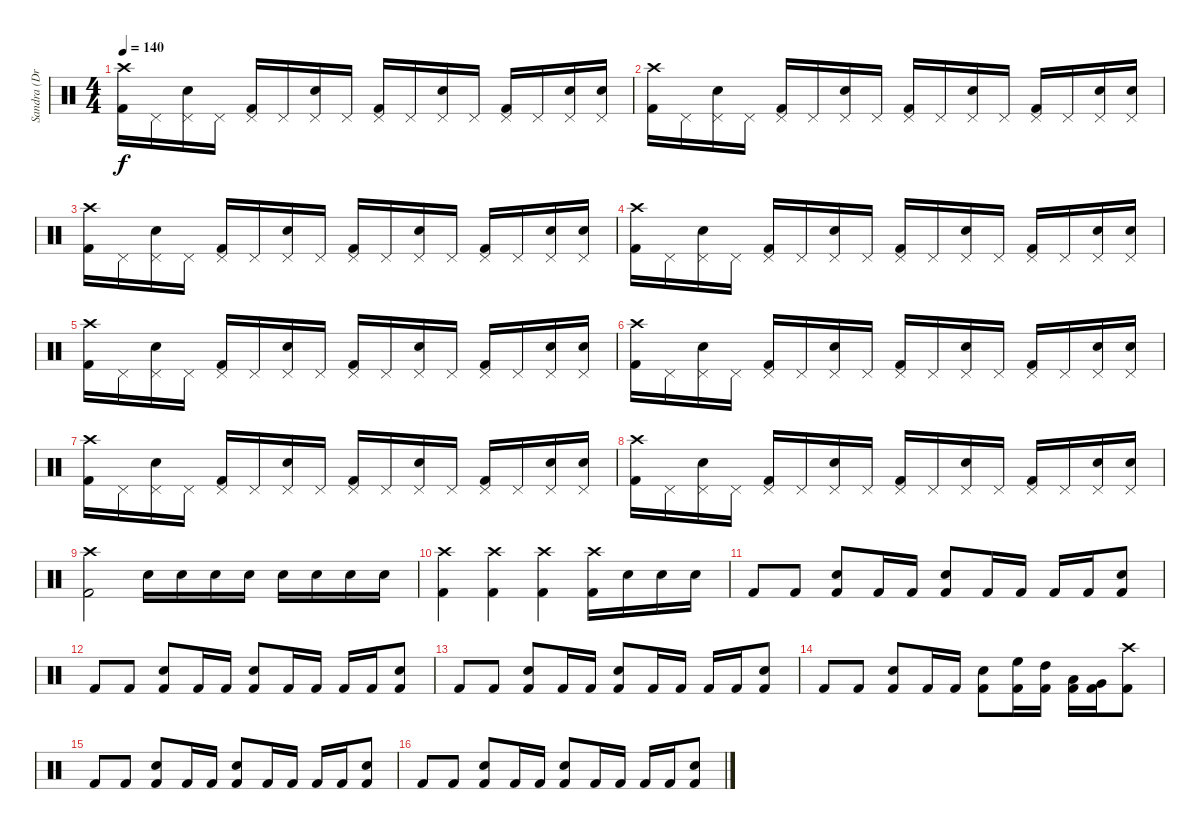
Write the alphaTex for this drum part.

\track ("Sandra (Drums)" "Sandra (Dr") {instrument percussion}
\staff {score}
\articulation defaults
\ts (4 4)
\tempo 140
\clef neutral
\ks c
("Crash high (hit)" "Kick (hit) 2").16{dy f} "Pedal Hi-Hat (hit)".16 ("Pedal Hi-Hat (hit)" "Snare (hit) 2").16 "Pedal Hi-Hat (hit)".16 ("Pedal Hi-Hat (hit)" "Kick (hit) 2").16 "Pedal Hi-Hat (hit)".16 ("Pedal Hi-Hat (hit)" "Snare (hit) 2").16 "Pedal Hi-Hat (hit)".16 ("Pedal Hi-Hat (hit)" "Kick (hit) 2").16 "Pedal Hi-Hat (hit)".16 ("Pedal Hi-Hat (hit)" "Snare (hit) 2").16 "Pedal Hi-Hat (hit)".16 ("Pedal Hi-Hat (hit)" "Kick (hit) 2").16 "Pedal Hi-Hat (hit)".16 ("Pedal Hi-Hat (hit)" "Snare (hit) 2").16 ("Pedal Hi-Hat (hit)" "Snare (hit) 2").16 |
("Crash high (hit)" "Kick (hit) 2").16 "Pedal Hi-Hat (hit)".16 ("Pedal Hi-Hat (hit)" "Snare (hit) 2").16 "Pedal Hi-Hat (hit)".16 ("Pedal Hi-Hat (hit)" "Kick (hit) 2").16 "Pedal Hi-Hat (hit)".16 ("Pedal Hi-Hat (hit)" "Snare (hit) 2").16 "Pedal Hi-Hat (hit)".16 ("Pedal Hi-Hat (hit)" "Kick (hit) 2").16 "Pedal Hi-Hat (hit)".16 ("Pedal Hi-Hat (hit)" "Snare (hit) 2").16 "Pedal Hi-Hat (hit)".16 ("Pedal Hi-Hat (hit)" "Kick (hit) 2").16 "Pedal Hi-Hat (hit)".16 ("Pedal Hi-Hat (hit)" "Snare (hit) 2").16 ("Pedal Hi-Hat (hit)" "Snare (hit) 2").16 |
("Crash high (hit)" "Kick (hit) 2").16 "Pedal Hi-Hat (hit)".16 ("Pedal Hi-Hat (hit)" "Snare (hit) 2").16 "Pedal Hi-Hat (hit)".16 ("Pedal Hi-Hat (hit)" "Kick (hit) 2").16 "Pedal Hi-Hat (hit)".16 ("Pedal Hi-Hat (hit)" "Snare (hit) 2").16 "Pedal Hi-Hat (hit)".16 ("Pedal Hi-Hat (hit)" "Kick (hit) 2").16 "Pedal Hi-Hat (hit)".16 ("Pedal Hi-Hat (hit)" "Snare (hit) 2").16 "Pedal Hi-Hat (hit)".16 ("Pedal Hi-Hat (hit)" "Kick (hit) 2").16 "Pedal Hi-Hat (hit)".16 ("Pedal Hi-Hat (hit)" "Snare (hit) 2").16 ("Pedal Hi-Hat (hit)" "Snare (hit) 2").16 |
("Crash high (hit)" "Kick (hit) 2").16 "Pedal Hi-Hat (hit)".16 ("Pedal Hi-Hat (hit)" "Snare (hit) 2").16 "Pedal Hi-Hat (hit)".16 ("Pedal Hi-Hat (hit)" "Kick (hit) 2").16 "Pedal Hi-Hat (hit)".16 ("Pedal Hi-Hat (hit)" "Snare (hit) 2").16 "Pedal Hi-Hat (hit)".16 ("Pedal Hi-Hat (hit)" "Kick (hit) 2").16 "Pedal Hi-Hat (hit)".16 ("Pedal Hi-Hat (hit)" "Snare (hit) 2").16 "Pedal Hi-Hat (hit)".16 ("Pedal Hi-Hat (hit)" "Kick (hit) 2").16 "Pedal Hi-Hat (hit)".16 ("Pedal Hi-Hat (hit)" "Snare (hit) 2").16 ("Pedal Hi-Hat (hit)" "Snare (hit) 2").16 |
("Crash high (hit)" "Kick (hit) 2").16 "Pedal Hi-Hat (hit)".16 ("Pedal Hi-Hat (hit)" "Snare (hit) 2").16 "Pedal Hi-Hat (hit)".16 ("Pedal Hi-Hat (hit)" "Kick (hit) 2").16 "Pedal Hi-Hat (hit)".16 ("Pedal Hi-Hat (hit)" "Snare (hit) 2").16 "Pedal Hi-Hat (hit)".16 ("Pedal Hi-Hat (hit)" "Kick (hit) 2").16 "Pedal Hi-Hat (hit)".16 ("Pedal Hi-Hat (hit)" "Snare (hit) 2").16 "Pedal Hi-Hat (hit)".16 ("Pedal Hi-Hat (hit)" "Kick (hit) 2").16 "Pedal Hi-Hat (hit)".16 ("Pedal Hi-Hat (hit)" "Snare (hit) 2").16 ("Pedal Hi-Hat (hit)" "Snare (hit) 2").16 |
("Crash high (hit)" "Kick (hit) 2").16 "Pedal Hi-Hat (hit)".16 ("Pedal Hi-Hat (hit)" "Snare (hit) 2").16 "Pedal Hi-Hat (hit)".16 ("Pedal Hi-Hat (hit)" "Kick (hit) 2").16 "Pedal Hi-Hat (hit)".16 ("Pedal Hi-Hat (hit)" "Snare (hit) 2").16 "Pedal Hi-Hat (hit)".16 ("Pedal Hi-Hat (hit)" "Kick (hit) 2").16 "Pedal Hi-Hat (hit)".16 ("Pedal Hi-Hat (hit)" "Snare (hit) 2").16 "Pedal Hi-Hat (hit)".16 ("Pedal Hi-Hat (hit)" "Kick (hit) 2").16 "Pedal Hi-Hat (hit)".16 ("Pedal Hi-Hat (hit)" "Snare (hit) 2").16 ("Pedal Hi-Hat (hit)" "Snare (hit) 2").16 |
("Crash high (hit)" "Kick (hit) 2").16 "Pedal Hi-Hat (hit)".16 ("Pedal Hi-Hat (hit)" "Snare (hit) 2").16 "Pedal Hi-Hat (hit)".16 ("Pedal Hi-Hat (hit)" "Kick (hit) 2").16 "Pedal Hi-Hat (hit)".16 ("Pedal Hi-Hat (hit)" "Snare (hit) 2").16 "Pedal Hi-Hat (hit)".16 ("Pedal Hi-Hat (hit)" "Kick (hit) 2").16 "Pedal Hi-Hat (hit)".16 ("Pedal Hi-Hat (hit)" "Snare (hit) 2").16 "Pedal Hi-Hat (hit)".16 ("Pedal Hi-Hat (hit)" "Kick (hit) 2").16 "Pedal Hi-Hat (hit)".16 ("Pedal Hi-Hat (hit)" "Snare (hit) 2").16 ("Pedal Hi-Hat (hit)" "Snare (hit) 2").16 |
("Crash high (hit)" "Kick (hit) 2").16 "Pedal Hi-Hat (hit)".16 ("Pedal Hi-Hat (hit)" "Snare (hit) 2").16 "Pedal Hi-Hat (hit)".16 ("Pedal Hi-Hat (hit)" "Kick (hit) 2").16 "Pedal Hi-Hat (hit)".16 ("Pedal Hi-Hat (hit)" "Snare (hit) 2").16 "Pedal Hi-Hat (hit)".16 ("Pedal Hi-Hat (hit)" "Kick (hit) 2").16 "Pedal Hi-Hat (hit)".16 ("Pedal Hi-Hat (hit)" "Snare (hit) 2").16 "Pedal Hi-Hat (hit)".16 ("Pedal Hi-Hat (hit)" "Kick (hit) 2").16 "Pedal Hi-Hat (hit)".16 ("Pedal Hi-Hat (hit)" "Snare (hit) 2").16 ("Pedal Hi-Hat (hit)" "Snare (hit) 2").16 |
("Crash high (hit)" "Kick (hit) 2").2 "Snare (hit) 2".16 "Snare (hit) 2".16 "Snare (hit) 2".16 "Snare (hit) 2".16 "Snare (hit) 2".16 "Snare (hit) 2".16 "Snare (hit) 2".16 "Snare (hit) 2".16 |
("Crash high (hit)" "Kick (hit) 2").4 ("Crash high (hit)" "Kick (hit) 2").4 ("Crash high (hit)" "Kick (hit) 2").4 ("Crash high (hit)" "Kick (hit) 2").16 "Snare (hit) 2".16 "Snare (hit) 2".16 "Snare (hit) 2".16 |
"Kick (hit) 2".8 "Kick (hit) 2".8 ("Snare (hit) 2" "Kick (hit) 2").8 "Kick (hit) 2".16 "Kick (hit) 2".16 ("Snare (hit) 2" "Kick (hit) 2").8 "Kick (hit) 2".16 "Kick (hit) 2".16 "Kick (hit) 2".16 "Kick (hit) 2".16 ("Snare (hit) 2" "Kick (hit) 2").8 |
"Kick (hit) 2".8 "Kick (hit) 2".8 ("Snare (hit) 2" "Kick (hit) 2").8 "Kick (hit) 2".16 "Kick (hit) 2".16 ("Snare (hit) 2" "Kick (hit) 2").8 "Kick (hit) 2".16 "Kick (hit) 2".16 "Kick (hit) 2".16 "Kick (hit) 2".16 ("Snare (hit) 2" "Kick (hit) 2").8 |
"Kick (hit) 2".8 "Kick (hit) 2".8 ("Snare (hit) 2" "Kick (hit) 2").8 "Kick (hit) 2".16 "Kick (hit) 2".16 ("Snare (hit) 2" "Kick (hit) 2").8 "Kick (hit) 2".16 "Kick (hit) 2".16 "Kick (hit) 2".16 "Kick (hit) 2".16 ("Snare (hit) 2" "Kick (hit) 2").8 |
"Kick (hit) 2".8 "Kick (hit) 2".8 ("Snare (hit) 2" "Kick (hit) 2").8 "Kick (hit) 2".16 "Kick (hit) 2".16 ("Snare (hit) 2" "Kick (hit) 2").8 ("Kick (hit) 2" "High Floor Tom (hit)").16 ("Kick (hit) 2" "High Tom (hit)").16 ("Kick (hit) 2" "Low Tom (hit)").16 ("Kick (hit) 2" "Very Low Tom (hit)").16 ("Crash high (hit)" "Kick (hit) 2").8 |
"Kick (hit) 2".8 "Kick (hit) 2".8 ("Snare (hit) 2" "Kick (hit) 2").8 "Kick (hit) 2".16 "Kick (hit) 2".16 ("Snare (hit) 2" "Kick (hit) 2").8 "Kick (hit) 2".16 "Kick (hit) 2".16 "Kick (hit) 2".16 "Kick (hit) 2".16 ("Snare (hit) 2" "Kick (hit) 2").8 |
"Kick (hit) 2".8 "Kick (hit) 2".8 ("Snare (hit) 2" "Kick (hit) 2").8 "Kick (hit) 2".16 "Kick (hit) 2".16 ("Snare (hit) 2" "Kick (hit) 2").8 "Kick (hit) 2".16 "Kick (hit) 2".16 "Kick (hit) 2".16 "Kick (hit) 2".16 ("Snare (hit) 2" "Kick (hit) 2").8
